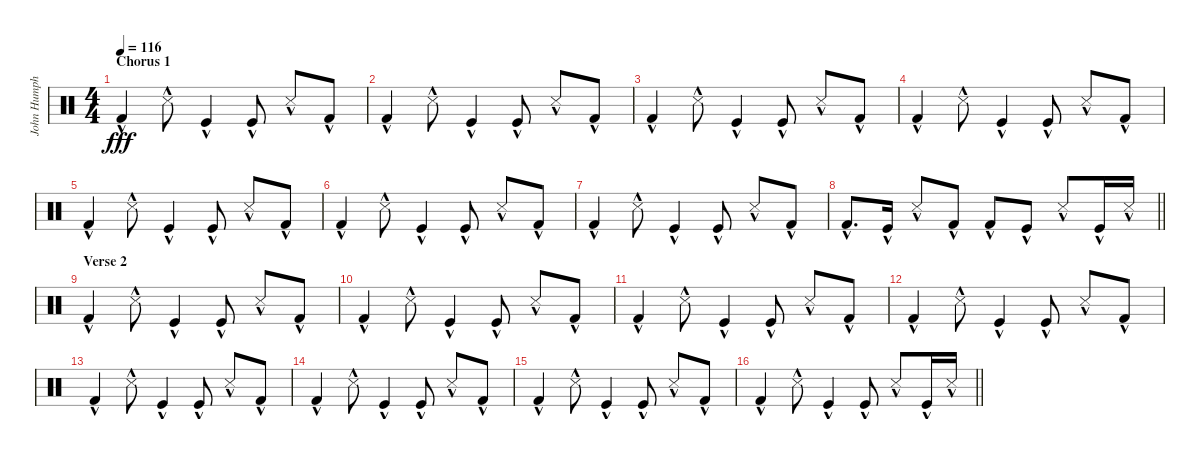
\track ("John Humphrey (Percussions)" "John Humph") {instrument percussion}
\staff {score}
\articulation defaults
\ts (4 4)
\section ("" "Chorus 1")
\tempo 116
\clef neutral
\ks c "Kick (hit) 2"{hac}.4{dy fff} "Snare (side stick) 3"{hac}.8 "Kick (hit)"{hac}.4 "Kick (hit)"{hac}.8 "Snare (side stick) 3"{hac}.8 "Kick (hit) 2"{hac}.8
|
"Kick (hit) 2"{hac}.4 "Snare (side stick) 3"{hac}.8 "Kick (hit)"{hac}.4 "Kick (hit)"{hac}.8 "Snare (side stick) 3"{hac}.8 "Kick (hit) 2"{hac}.8 |
"Kick (hit) 2"{hac}.4 "Snare (side stick) 3"{hac}.8 "Kick (hit)"{hac}.4 "Kick (hit)"{hac}.8 "Snare (side stick) 3"{hac}.8 "Kick (hit) 2"{hac}.8 |
"Kick (hit) 2"{hac}.4 "Snare (side stick) 3"{hac}.8 "Kick (hit)"{hac}.4 "Kick (hit)"{hac}.8 "Snare (side stick) 3"{hac}.8 "Kick (hit) 2"{hac}.8 |
"Kick (hit) 2"{hac}.4 "Snare (side stick) 3"{hac}.8 "Kick (hit)"{hac}.4 "Kick (hit)"{hac}.8 "Snare (side stick) 3"{hac}.8 "Kick (hit) 2"{hac}.8 |
"Kick (hit) 2"{hac}.4 "Snare (side stick) 3"{hac}.8 "Kick (hit)"{hac}.4 "Kick (hit)"{hac}.8 "Snare (side stick) 3"{hac}.8 "Kick (hit) 2"{hac}.8 |
"Kick (hit) 2"{hac}.4 "Snare (side stick) 3"{hac}.8 "Kick (hit)"{hac}.4 "Kick (hit)"{hac}.8 "Snare (side stick) 3"{hac}.8 "Kick (hit) 2"{hac}.8 |
\barLineRight lightlight "Kick (hit) 2"{hac}.8{d} "Kick (hit)"{hac}.16 "Snare (side stick) 3"{hac}.8 "Kick (hit) 2"{hac}.8 "Kick (hit) 2"{hac}.8 "Kick (hit)"{hac}.8 "Snare (side stick) 3"{hac}.8 "Kick (hit)"{hac}.16 "Snare (side stick) 3"{hac}.16
|
\section ("" "Verse 2")
"Kick (hit) 2"{hac}.4 "Snare (side stick) 3"{hac}.8 "Kick (hit)"{hac}.4 "Kick (hit)"{hac}.8 "Snare (side stick) 3"{hac}.8 "Kick (hit) 2"{hac}.8 |
"Kick (hit) 2"{hac}.4 "Snare (side stick) 3"{hac}.8 "Kick (hit)"{hac}.4 "Kick (hit)"{hac}.8 "Snare (side stick) 3"{hac}.8 "Kick (hit) 2"{hac}.8 |
"Kick (hit) 2"{hac}.4 "Snare (side stick) 3"{hac}.8 "Kick (hit)"{hac}.4 "Kick (hit)"{hac}.8 "Snare (side stick) 3"{hac}.8 "Kick (hit) 2"{hac}.8 |
"Kick (hit) 2"{hac}.4 "Snare (side stick) 3"{hac}.8 "Kick (hit)"{hac}.4 "Kick (hit)"{hac}.8 "Snare (side stick) 3"{hac}.8 "Kick (hit) 2"{hac}.8 |
"Kick (hit) 2"{hac}.4 "Snare (side stick) 3"{hac}.8 "Kick (hit)"{hac}.4 "Kick (hit)"{hac}.8 "Snare (side stick) 3"{hac}.8 "Kick (hit) 2"{hac}.8 |
"Kick (hit) 2"{hac}.4 "Snare (side stick) 3"{hac}.8 "Kick (hit)"{hac}.4 "Kick (hit)"{hac}.8 "Snare (side stick) 3"{hac}.8 "Kick (hit) 2"{hac}.8 |
"Kick (hit) 2"{hac}.4 "Snare (side stick) 3"{hac}.8 "Kick (hit)"{hac}.4 "Kick (hit)"{hac}.8 "Snare (side stick) 3"{hac}.8 "Kick (hit) 2"{hac}.8 |
\barLineRight lightlight "Kick (hit) 2"{hac}.4 "Snare (side stick) 3"{hac}.8 "Kick (hit)"{hac}.4 "Kick (hit)"{hac}.8 "Snare (side stick) 3"{hac}.8 "Kick (hit)"{hac}.16 "Snare (side stick) 3"{hac}.16
